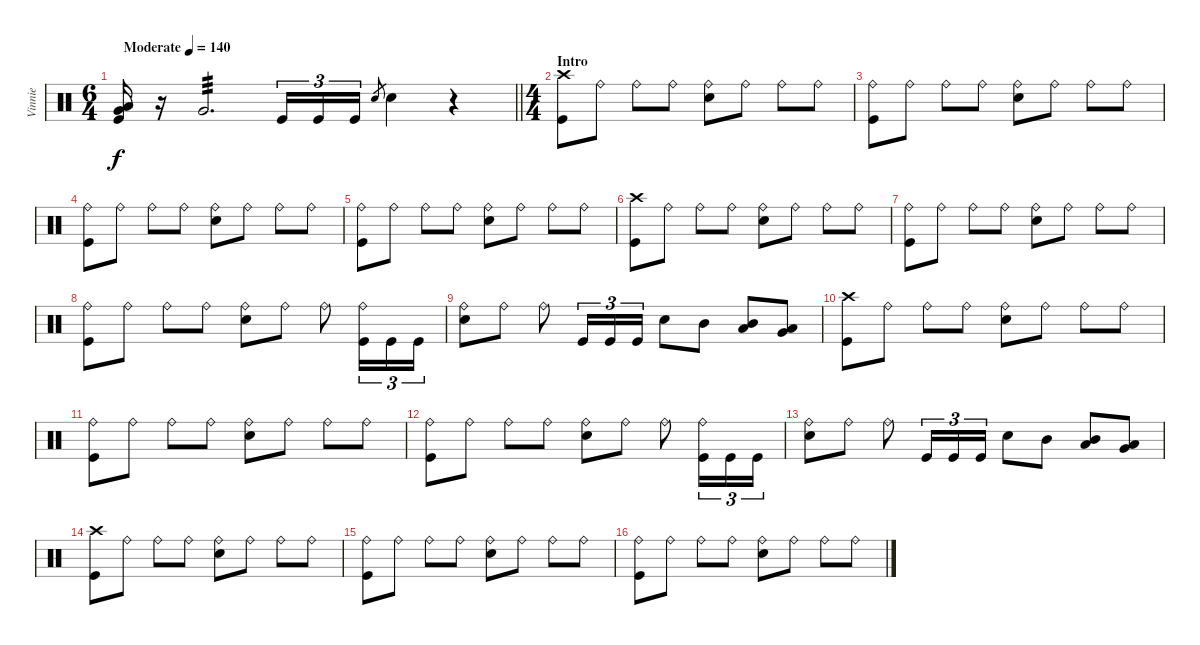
\track ("Vinnie" "Vinnie") {instrument percussion}
\staff {score}
\articulation defaults
\ts (6 4)
\tempo (140 "Moderate")
\clef neutral
\barLineRight lightlight
\ks c
("Low Tom (hit)" "Very Low Tom (hit)" "Kick (hit)").16{dy f} r.16{volume 3} "Very Low Tom (hit)".2{d tp 3 volume 16} "Kick (hit)".16{tu (3 2)} "Kick (hit)".16{tu (3 2)} "Kick (hit)".16{tu (3 2)} "Electric Snare (hit)".8{gr} "Electric Snare (hit)".4 r.4 |
\ts (4 4)
\section ("" "Intro")
("Crash high (hit)" "Kick (hit)").8 "Ride (bell)".8 "Ride (bell)".8 "Ride (bell)".8 ("Ride (bell)" "Electric Snare (hit)").8 "Ride (bell)".8 "Ride (bell)".8 "Ride (bell)".8 |
("Ride (bell)" "Kick (hit)").8 "Ride (bell)".8 "Ride (bell)".8 "Ride (bell)".8 ("Ride (bell)" "Electric Snare (hit)").8 "Ride (bell)".8 "Ride (bell)".8 "Ride (bell)".8 |
("Ride (bell)" "Kick (hit)").8 "Ride (bell)".8 "Ride (bell)".8 "Ride (bell)".8 ("Ride (bell)" "Electric Snare (hit)").8 "Ride (bell)".8 "Ride (bell)".8 "Ride (bell)".8 |
("Ride (bell)" "Kick (hit)").8 "Ride (bell)".8 "Ride (bell)".8 "Ride (bell)".8 ("Ride (bell)" "Electric Snare (hit)").8 "Ride (bell)".8 "Ride (bell)".8 "Ride (bell)".8 |
("Crash high (hit)" "Kick (hit)").8 "Ride (bell)".8 "Ride (bell)".8 "Ride (bell)".8 ("Ride (bell)" "Electric Snare (hit)").8 "Ride (bell)".8 "Ride (bell)".8 "Ride (bell)".8 |
("Ride (bell)" "Kick (hit)").8 "Ride (bell)".8 "Ride (bell)".8 "Ride (bell)".8 ("Ride (bell)" "Electric Snare (hit)").8 "Ride (bell)".8 "Ride (bell)".8 "Ride (bell)".8 |
("Ride (bell)" "Kick (hit)").8 "Ride (bell)".8 "Ride (bell)".8 "Ride (bell)".8 ("Ride (bell)" "Electric Snare (hit)").8 "Ride (bell)".8 "Ride (bell)".8 ("Ride (bell)" "Kick (hit)").16{tu (3 2)} "Kick (hit)".16{tu (3 2)} "Kick (hit)".16{tu (3 2)} |
("Ride (bell)" "Electric Snare (hit)").8 "Ride (bell)".8 "Ride (bell)".8 "Kick (hit)".16{tu (3 2)} "Kick (hit)".16{tu (3 2)} "Kick (hit)".16{tu (3 2)} "Electric Snare (hit)".8 "Mid Tom (hit)".8 ("Mid Tom (hit)" "Low Tom (hit)").8 ("Low Tom (hit)" "Very Low Tom (hit)").8 |
("Crash high (hit)" "Kick (hit)").8 "Ride (bell)".8 "Ride (bell)".8 "Ride (bell)".8 ("Ride (bell)" "Electric Snare (hit)").8 "Ride (bell)".8 "Ride (bell)".8 "Ride (bell)".8 |
("Ride (bell)" "Kick (hit)").8 "Ride (bell)".8 "Ride (bell)".8 "Ride (bell)".8 ("Ride (bell)" "Electric Snare (hit)").8 "Ride (bell)".8 "Ride (bell)".8 "Ride (bell)".8 |
("Ride (bell)" "Kick (hit)").8 "Ride (bell)".8 "Ride (bell)".8 "Ride (bell)".8 ("Ride (bell)" "Electric Snare (hit)").8 "Ride (bell)".8 "Ride (bell)".8 ("Ride (bell)" "Kick (hit)").16{tu (3 2)} "Kick (hit)".16{tu (3 2)} "Kick (hit)".16{tu (3 2)} |
("Ride (bell)" "Electric Snare (hit)").8 "Ride (bell)".8 "Ride (bell)".8 "Kick (hit)".16{tu (3 2)} "Kick (hit)".16{tu (3 2)} "Kick (hit)".16{tu (3 2)} "Electric Snare (hit)".8 "Mid Tom (hit)".8 ("Mid Tom (hit)" "Low Tom (hit)").8 ("Low Tom (hit)" "Very Low Tom (hit)").8 |
("Crash high (hit)" "Kick (hit)").8 "Ride (bell)".8 "Ride (bell)".8 "Ride (bell)".8 ("Ride (bell)" "Electric Snare (hit)").8 "Ride (bell)".8 "Ride (bell)".8 "Ride (bell)".8 |
("Ride (bell)" "Kick (hit)").8 "Ride (bell)".8 "Ride (bell)".8 "Ride (bell)".8 ("Ride (bell)" "Electric Snare (hit)").8 "Ride (bell)".8 "Ride (bell)".8 "Ride (bell)".8 |
("Ride (bell)" "Kick (hit)").8 "Ride (bell)".8 "Ride (bell)".8 "Ride (bell)".8 ("Ride (bell)" "Electric Snare (hit)").8 "Ride (bell)".8 "Ride (bell)".8 "Ride (bell)".8
